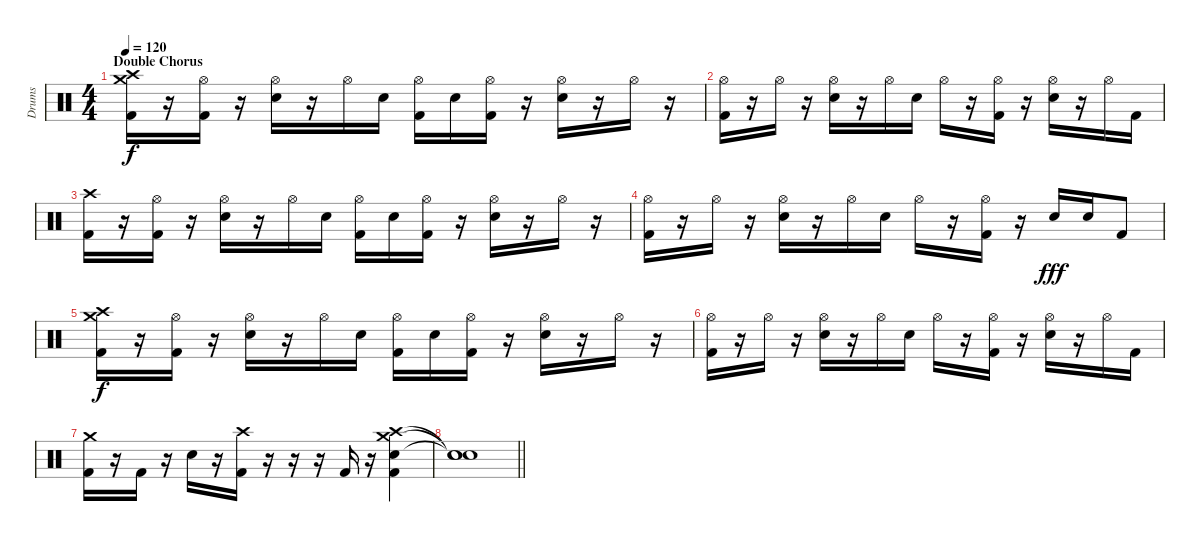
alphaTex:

\track ("Drums" "Drums") {instrument percussion}
\staff {score}
\articulation defaults
\ts (4 4)
\section ("" "Double Chorus")
\tempo 120
\clef neutral
\ks c
("Crash medium (hit)" "Crash high (hit)" "Kick (hit) 2").16{dy f} r.16 ("Hi-Hat (open)" "Kick (hit) 2").16 r.16 ("Hi-Hat (open)" "Electric Snare (hit)").16 r.16 "Hi-Hat (open)".16 "Electric Snare (hit)".16 ("Hi-Hat (open)" "Kick (hit) 2").16 "Electric Snare (hit)".16 ("Hi-Hat (open)" "Kick (hit) 2").16 r.16 ("Hi-Hat (open)" "Electric Snare (hit)").16 r.16 "Hi-Hat (open)".16 r.16 |
("Hi-Hat (open)" "Kick (hit) 2").16 r.16 "Hi-Hat (open)".16 r.16 ("Hi-Hat (open)" "Electric Snare (hit)").16 r.16 "Hi-Hat (open)".16 "Electric Snare (hit)".16 "Hi-Hat (open)".16 r.16 ("Hi-Hat (open)" "Kick (hit) 2").16 r.16 ("Hi-Hat (open)" "Electric Snare (hit)").16 r.16 "Hi-Hat (open)".16 "Kick (hit) 2".16 |
("Crash high (hit)" "Kick (hit) 2").16 r.16 ("Hi-Hat (open)" "Kick (hit) 2").16 r.16 ("Hi-Hat (open)" "Electric Snare (hit)").16 r.16 "Hi-Hat (open)".16 "Electric Snare (hit)".16 ("Hi-Hat (open)" "Kick (hit) 2").16 "Electric Snare (hit)".16 ("Hi-Hat (open)" "Kick (hit) 2").16 r.16 ("Hi-Hat (open)" "Electric Snare (hit)").16 r.16 "Hi-Hat (open)".16 r.16 |
("Hi-Hat (open)" "Kick (hit) 2").16 r.16 "Hi-Hat (open)".16 r.16 ("Hi-Hat (open)" "Electric Snare (hit)").16 r.16 "Hi-Hat (open)".16 "Electric Snare (hit)".16 "Hi-Hat (open)".16 r.16 ("Hi-Hat (open)" "Kick (hit) 2").16 r.16 "Electric Snare (hit)".16{dy fff} "Electric Snare (hit)".16 "Kick (hit) 2".8 |
("Crash medium (hit)" "Crash high (hit)" "Kick (hit) 2").16{dy f} r.16 ("Hi-Hat (open)" "Kick (hit) 2").16 r.16 ("Hi-Hat (open)" "Electric Snare (hit)").16 r.16 "Hi-Hat (open)".16 "Electric Snare (hit)".16 ("Hi-Hat (open)" "Kick (hit) 2").16 "Electric Snare (hit)".16 ("Hi-Hat (open)" "Kick (hit) 2").16 r.16 ("Hi-Hat (open)" "Electric Snare (hit)").16 r.16 "Hi-Hat (open)".16 r.16 |
("Hi-Hat (open)" "Kick (hit) 2").16 r.16 "Hi-Hat (open)".16 r.16 ("Hi-Hat (open)" "Electric Snare (hit)").16 r.16 "Hi-Hat (open)".16 "Electric Snare (hit)".16 "Hi-Hat (open)".16 r.16 ("Hi-Hat (open)" "Kick (hit) 2").16 r.16 ("Hi-Hat (open)" "Electric Snare (hit)").16 r.16 "Hi-Hat (open)".16 "Kick (hit) 2".16 |
("Crash medium (hit)" "Kick (hit) 2").16 r.16 "Kick (hit) 2".16 r.16 "Electric Snare (hit)".16 r.16 ("Crash high (hit)" "Kick (hit) 2").16 r.16 r.16 r.16 "Kick (hit) 2".16 r.16 ("Crash high (hit)" "Crash medium (hit)" "Electric Snare (hit)" "Kick (hit) 2").4 |
\barLineRight lightlight
("Snare (hit)"{t} "Snare (hit)"{t} "Snare (hit)"{t}).1
